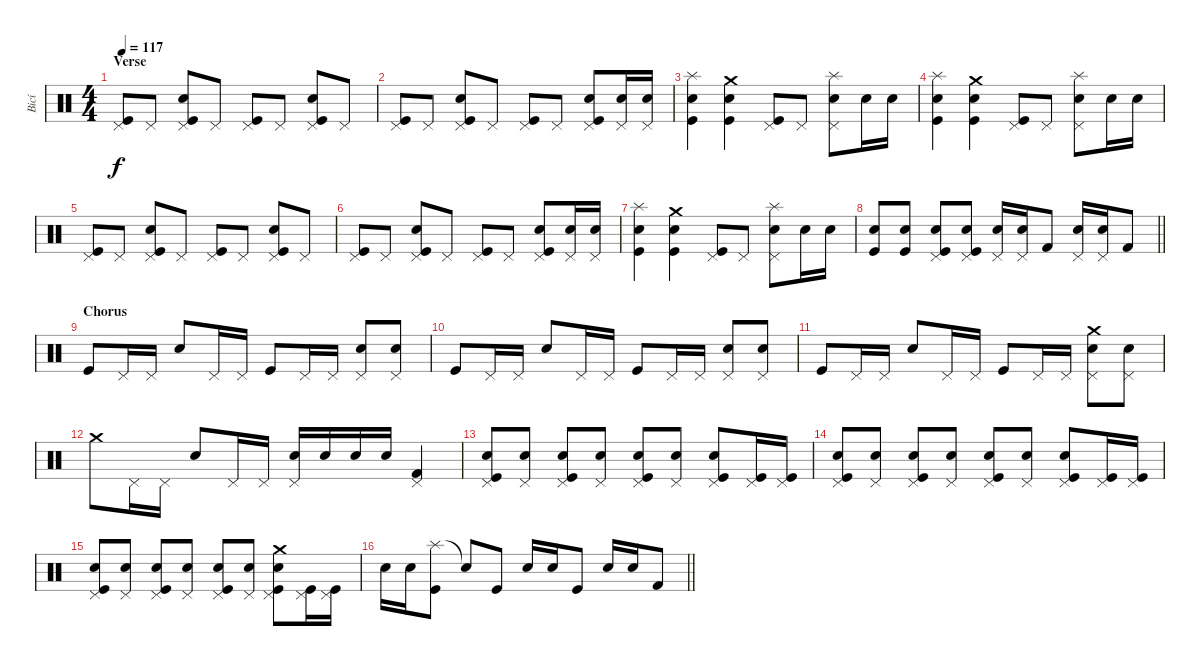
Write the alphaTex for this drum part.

\track ("Bicí" "Bicí") {instrument percussion}
\staff {score}
\articulation defaults
\ts (4 4)
\section ("" "Verse")
\tempo 117
\clef neutral
\ks c
("Pedal Hi-Hat (hit)" "Kick (hit)").8{dy f} "Pedal Hi-Hat (hit)".8 ("Pedal Hi-Hat (hit)" "Kick (hit)" "Electric Snare (hit)").8 "Pedal Hi-Hat (hit)".8 ("Pedal Hi-Hat (hit)" "Kick (hit)").8 "Pedal Hi-Hat (hit)".8 ("Pedal Hi-Hat (hit)" "Kick (hit)" "Electric Snare (hit)").8 "Pedal Hi-Hat (hit)".8 |
("Pedal Hi-Hat (hit)" "Kick (hit)").8 "Pedal Hi-Hat (hit)".8 ("Pedal Hi-Hat (hit)" "Kick (hit)" "Electric Snare (hit)").8 "Pedal Hi-Hat (hit)".8 ("Pedal Hi-Hat (hit)" "Kick (hit)").8 "Pedal Hi-Hat (hit)".8 ("Pedal Hi-Hat (hit)" "Kick (hit)" "Electric Snare (hit)").8 ("Pedal Hi-Hat (hit)" "Electric Snare (hit)").16 ("Pedal Hi-Hat (hit)" "Electric Snare (hit)").16 |
("Splash (hit)" "Electric Snare (hit)" "Kick (hit)").4 ("Crash medium (hit)" "Electric Snare (hit)" "Kick (hit)").4 ("Pedal Hi-Hat (hit)" "Kick (hit)").8 "Pedal Hi-Hat (hit)".8 ("Pedal Hi-Hat (hit)" "Splash (hit)" "Electric Snare (hit)").8 "Electric Snare (hit)".16 "Electric Snare (hit)".16 |
("Splash (hit)" "Electric Snare (hit)" "Kick (hit)").4 ("Crash medium (hit)" "Electric Snare (hit)" "Kick (hit)").4 ("Pedal Hi-Hat (hit)" "Kick (hit)").8 "Pedal Hi-Hat (hit)".8 ("Pedal Hi-Hat (hit)" "Splash (hit)" "Electric Snare (hit)").8 "Electric Snare (hit)".16 "Electric Snare (hit)".16 |
("Pedal Hi-Hat (hit)" "Kick (hit)").8 "Pedal Hi-Hat (hit)".8 ("Pedal Hi-Hat (hit)" "Kick (hit)" "Electric Snare (hit)").8 "Pedal Hi-Hat (hit)".8 ("Pedal Hi-Hat (hit)" "Kick (hit)").8 "Pedal Hi-Hat (hit)".8 ("Pedal Hi-Hat (hit)" "Kick (hit)" "Electric Snare (hit)").8 "Pedal Hi-Hat (hit)".8 |
("Pedal Hi-Hat (hit)" "Kick (hit)").8 "Pedal Hi-Hat (hit)".8 ("Pedal Hi-Hat (hit)" "Kick (hit)" "Electric Snare (hit)").8 "Pedal Hi-Hat (hit)".8 ("Pedal Hi-Hat (hit)" "Kick (hit)").8 "Pedal Hi-Hat (hit)".8 ("Pedal Hi-Hat (hit)" "Kick (hit)" "Electric Snare (hit)").8 ("Pedal Hi-Hat (hit)" "Electric Snare (hit)").16 ("Pedal Hi-Hat (hit)" "Electric Snare (hit)").16 |
("Splash (hit)" "Electric Snare (hit)" "Kick (hit)").4 ("Crash medium (hit)" "Electric Snare (hit)" "Kick (hit)").4 ("Pedal Hi-Hat (hit)" "Kick (hit)").8 "Pedal Hi-Hat (hit)".8 ("Pedal Hi-Hat (hit)" "Splash (hit)" "Electric Snare (hit)").8 "Electric Snare (hit)".16 "Electric Snare (hit)".16 |
\barLineRight lightlight
("Kick (hit)" "Electric Snare (hit)").8 ("Kick (hit)" "Electric Snare (hit)").8 ("Pedal Hi-Hat (hit)" "Kick (hit)" "Electric Snare (hit)").8 ("Pedal Hi-Hat (hit)" "Kick (hit)" "Electric Snare (hit)").8 ("Pedal Hi-Hat (hit)" "Electric Snare (hit)").16 ("Pedal Hi-Hat (hit)" "Electric Snare (hit)").16 "Kick (hit) 2".8 ("Pedal Hi-Hat (hit)" "Electric Snare (hit)").16 ("Pedal Hi-Hat (hit)" "Electric Snare (hit)").16 "Kick (hit) 2".8 |
\section ("" "Chorus")
"Kick (hit)".8 "Pedal Hi-Hat (hit)".16 "Pedal Hi-Hat (hit)".16 "Electric Snare (hit)".8 "Pedal Hi-Hat (hit)".16 "Pedal Hi-Hat (hit)".16 "Kick (hit)".8 "Pedal Hi-Hat (hit)".16 "Pedal Hi-Hat (hit)".16 ("Pedal Hi-Hat (hit)" "Electric Snare (hit)").8 ("Pedal Hi-Hat (hit)" "Electric Snare (hit)").8 |
"Kick (hit)".8 "Pedal Hi-Hat (hit)".16 "Pedal Hi-Hat (hit)".16 "Electric Snare (hit)".8 "Pedal Hi-Hat (hit)".16 "Pedal Hi-Hat (hit)".16 "Kick (hit)".8 "Pedal Hi-Hat (hit)".16 "Pedal Hi-Hat (hit)".16 ("Pedal Hi-Hat (hit)" "Electric Snare (hit)").8 ("Pedal Hi-Hat (hit)" "Electric Snare (hit)").8 |
"Kick (hit)".8 "Pedal Hi-Hat (hit)".16 "Pedal Hi-Hat (hit)".16 "Electric Snare (hit)".8 "Pedal Hi-Hat (hit)".16 "Pedal Hi-Hat (hit)".16 "Kick (hit)".8 "Pedal Hi-Hat (hit)".16 "Pedal Hi-Hat (hit)".16 ("Crash medium (hit)" "Pedal Hi-Hat (hit)" "Electric Snare (hit)").8 ("Pedal Hi-Hat (hit)" "Electric Snare (hit)").8 |
"Crash medium (hit)".8 "Pedal Hi-Hat (hit)".16 "Pedal Hi-Hat (hit)".16 "Electric Snare (hit)".8 "Pedal Hi-Hat (hit)".16 "Pedal Hi-Hat (hit)".16 ("Electric Snare (hit)" "Pedal Hi-Hat (hit)").16 "Electric Snare (hit)".16 "Electric Snare (hit)".16 "Electric Snare (hit)".16 ("Kick (hit) 2" "Pedal Hi-Hat (hit)").4 |
("Pedal Hi-Hat (hit)" "Electric Snare (hit)" "Kick (hit)").8 ("Pedal Hi-Hat (hit)" "Snare (hit)").8 ("Pedal Hi-Hat (hit)" "Electric Snare (hit)" "Kick (hit)").8 ("Pedal Hi-Hat (hit)" "Snare (hit)").8 ("Pedal Hi-Hat (hit)" "Electric Snare (hit)" "Kick (hit)").8 ("Pedal Hi-Hat (hit)" "Snare (hit)").8 ("Pedal Hi-Hat (hit)" "Electric Snare (hit)" "Kick (hit)").8 ("Pedal Hi-Hat (hit)" "Kick (hit)").16 ("Pedal Hi-Hat (hit)" "Kick (hit)").16 |
("Pedal Hi-Hat (hit)" "Electric Snare (hit)" "Kick (hit)").8 ("Pedal Hi-Hat (hit)" "Snare (hit)").8 ("Pedal Hi-Hat (hit)" "Electric Snare (hit)" "Kick (hit)").8 ("Pedal Hi-Hat (hit)" "Snare (hit)").8 ("Pedal Hi-Hat (hit)" "Electric Snare (hit)" "Kick (hit)").8 ("Pedal Hi-Hat (hit)" "Snare (hit)").8 ("Pedal Hi-Hat (hit)" "Electric Snare (hit)" "Kick (hit)").8 ("Pedal Hi-Hat (hit)" "Kick (hit)").16 ("Pedal Hi-Hat (hit)" "Kick (hit)").16 |
("Pedal Hi-Hat (hit)" "Electric Snare (hit)" "Kick (hit)").8 ("Pedal Hi-Hat (hit)" "Snare (hit)").8 ("Pedal Hi-Hat (hit)" "Electric Snare (hit)" "Kick (hit)").8 ("Pedal Hi-Hat (hit)" "Snare (hit)").8 ("Pedal Hi-Hat (hit)" "Electric Snare (hit)" "Kick (hit)").8 ("Pedal Hi-Hat (hit)" "Snare (hit)").8 ("Crash medium (hit)" "Pedal Hi-Hat (hit)" "Electric Snare (hit)" "Kick (hit)").8 ("Pedal Hi-Hat (hit)" "Kick (hit)").16 ("Pedal Hi-Hat (hit)" "Kick (hit)").16 |
\barLineRight lightlight "Electric Snare (hit)".16 "Electric Snare (hit)".16
("Splash (hit)" "Kick (hit)").8 "Snare (hit)"{t}.8 "Kick (hit)".8 "Electric Snare (hit)".16 "Electric Snare (hit)".16 "Kick (hit)".8 "Electric Snare (hit)".16 "Electric Snare (hit)".16 "Kick (hit) 2".8
